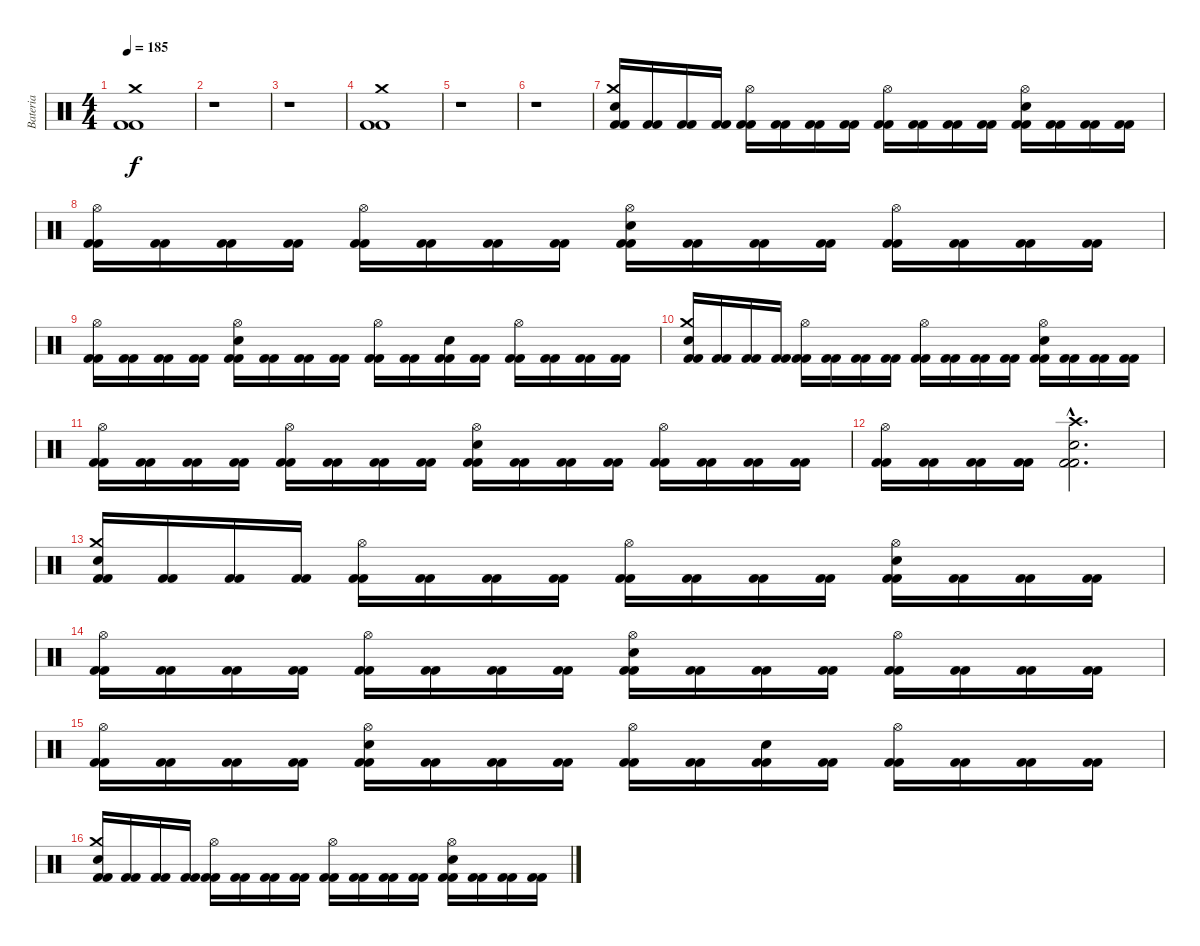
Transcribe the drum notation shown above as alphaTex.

\track ("Bateria" "Bateria") {instrument percussion}
\staff {score}
\articulation defaults
\ts (4 4)
\tempo 185
\clef neutral
\ks c
("Kick (hit) 2" "Kick (hit) 2" "Crash medium (hit)").1{dy f} |
r.1 |
r.1 |
("Kick (hit) 2" "Kick (hit) 2" "Crash medium (hit)").1 |
r.1 |
r.1 |
("Kick (hit) 2" "Kick (hit) 2" "Electric Snare (hit)" "Crash medium (hit)").16 ("Kick (hit) 2" "Kick (hit) 2").16 ("Kick (hit) 2" "Kick (hit) 2").16 ("Kick (hit) 2" "Kick (hit) 2").16 ("Kick (hit) 2" "Kick (hit) 2" "Hi-Hat (open)").16 ("Kick (hit) 2" "Kick (hit) 2").16 ("Kick (hit) 2" "Kick (hit) 2").16 ("Kick (hit) 2" "Kick (hit) 2").16 ("Kick (hit) 2" "Kick (hit) 2" "Hi-Hat (open)").16 ("Kick (hit) 2" "Kick (hit) 2").16 ("Kick (hit) 2" "Kick (hit) 2").16 ("Kick (hit) 2" "Kick (hit) 2").16 ("Kick (hit) 2" "Kick (hit) 2" "Electric Snare (hit)" "Hi-Hat (open)").16 ("Kick (hit) 2" "Kick (hit) 2").16 ("Kick (hit) 2" "Kick (hit) 2").16 ("Kick (hit) 2" "Kick (hit) 2").16 |
("Kick (hit) 2" "Kick (hit) 2" "Hi-Hat (open)").16 ("Kick (hit) 2" "Kick (hit) 2").16 ("Kick (hit) 2" "Kick (hit) 2").16 ("Kick (hit) 2" "Kick (hit) 2").16 ("Kick (hit) 2" "Kick (hit) 2" "Hi-Hat (open)").16 ("Kick (hit) 2" "Kick (hit) 2").16 ("Kick (hit) 2" "Kick (hit) 2").16 ("Kick (hit) 2" "Kick (hit) 2").16 ("Kick (hit) 2" "Kick (hit) 2" "Electric Snare (hit)" "Hi-Hat (open)").16 ("Kick (hit) 2" "Kick (hit) 2").16 ("Kick (hit) 2" "Kick (hit) 2").16 ("Kick (hit) 2" "Kick (hit) 2").16 ("Kick (hit) 2" "Kick (hit) 2" "Hi-Hat (open)").16 ("Kick (hit) 2" "Kick (hit) 2").16 ("Kick (hit) 2" "Kick (hit) 2").16 ("Kick (hit) 2" "Kick (hit) 2").16 |
("Kick (hit) 2" "Kick (hit) 2" "Hi-Hat (open)").16 ("Kick (hit) 2" "Kick (hit) 2").16 ("Kick (hit) 2" "Kick (hit) 2").16 ("Kick (hit) 2" "Kick (hit) 2").16 ("Kick (hit) 2" "Kick (hit) 2" "Electric Snare (hit)" "Hi-Hat (open)").16 ("Kick (hit) 2" "Kick (hit) 2").16 ("Kick (hit) 2" "Kick (hit) 2").16 ("Kick (hit) 2" "Kick (hit) 2").16 ("Kick (hit) 2" "Kick (hit) 2" "Hi-Hat (open)").16 ("Kick (hit) 2" "Kick (hit) 2").16 ("Kick (hit) 2" "Kick (hit) 2" "Electric Snare (hit)").16 ("Kick (hit) 2" "Kick (hit) 2").16 ("Kick (hit) 2" "Kick (hit) 2" "Hi-Hat (open)").16 ("Kick (hit) 2" "Kick (hit) 2").16 ("Kick (hit) 2" "Kick (hit) 2").16 ("Kick (hit) 2" "Kick (hit) 2").16 |
("Kick (hit) 2" "Kick (hit) 2" "Electric Snare (hit)" "Crash medium (hit)").16 ("Kick (hit) 2" "Kick (hit) 2").16 ("Kick (hit) 2" "Kick (hit) 2").16 ("Kick (hit) 2" "Kick (hit) 2").16 ("Kick (hit) 2" "Kick (hit) 2" "Hi-Hat (open)").16 ("Kick (hit) 2" "Kick (hit) 2").16 ("Kick (hit) 2" "Kick (hit) 2").16 ("Kick (hit) 2" "Kick (hit) 2").16 ("Kick (hit) 2" "Kick (hit) 2" "Hi-Hat (open)").16 ("Kick (hit) 2" "Kick (hit) 2").16 ("Kick (hit) 2" "Kick (hit) 2").16 ("Kick (hit) 2" "Kick (hit) 2").16 ("Kick (hit) 2" "Kick (hit) 2" "Electric Snare (hit)" "Hi-Hat (open)").16 ("Kick (hit) 2" "Kick (hit) 2").16 ("Kick (hit) 2" "Kick (hit) 2").16 ("Kick (hit) 2" "Kick (hit) 2").16 |
("Kick (hit) 2" "Kick (hit) 2" "Hi-Hat (open)").16 ("Kick (hit) 2" "Kick (hit) 2").16 ("Kick (hit) 2" "Kick (hit) 2").16 ("Kick (hit) 2" "Kick (hit) 2").16 ("Kick (hit) 2" "Kick (hit) 2" "Hi-Hat (open)").16 ("Kick (hit) 2" "Kick (hit) 2").16 ("Kick (hit) 2" "Kick (hit) 2").16 ("Kick (hit) 2" "Kick (hit) 2").16 ("Kick (hit) 2" "Kick (hit) 2" "Electric Snare (hit)" "Hi-Hat (open)").16 ("Kick (hit) 2" "Kick (hit) 2").16 ("Kick (hit) 2" "Kick (hit) 2").16 ("Kick (hit) 2" "Kick (hit) 2").16 ("Kick (hit) 2" "Kick (hit) 2" "Hi-Hat (open)").16 ("Kick (hit) 2" "Kick (hit) 2").16 ("Kick (hit) 2" "Kick (hit) 2").16 ("Kick (hit) 2" "Kick (hit) 2").16 |
("Kick (hit) 2" "Kick (hit) 2" "Hi-Hat (open)").16 ("Kick (hit) 2" "Kick (hit) 2").16 ("Kick (hit) 2" "Kick (hit) 2").16 ("Kick (hit) 2" "Kick (hit) 2").16 ("Kick (hit) 2"{hac} "Kick (hit) 2"{hac} "Electric Snare (hit)"{hac} "Crash high (hit)"{hac}).2{d} |
("Kick (hit) 2" "Kick (hit) 2" "Electric Snare (hit)" "Crash medium (hit)").16 ("Kick (hit) 2" "Kick (hit) 2").16 ("Kick (hit) 2" "Kick (hit) 2").16 ("Kick (hit) 2" "Kick (hit) 2").16 ("Kick (hit) 2" "Kick (hit) 2" "Hi-Hat (open)").16 ("Kick (hit) 2" "Kick (hit) 2").16 ("Kick (hit) 2" "Kick (hit) 2").16 ("Kick (hit) 2" "Kick (hit) 2").16 ("Kick (hit) 2" "Kick (hit) 2" "Hi-Hat (open)").16 ("Kick (hit) 2" "Kick (hit) 2").16 ("Kick (hit) 2" "Kick (hit) 2").16 ("Kick (hit) 2" "Kick (hit) 2").16 ("Kick (hit) 2" "Kick (hit) 2" "Electric Snare (hit)" "Hi-Hat (open)").16 ("Kick (hit) 2" "Kick (hit) 2").16 ("Kick (hit) 2" "Kick (hit) 2").16 ("Kick (hit) 2" "Kick (hit) 2").16 |
("Kick (hit) 2" "Kick (hit) 2" "Hi-Hat (open)").16 ("Kick (hit) 2" "Kick (hit) 2").16 ("Kick (hit) 2" "Kick (hit) 2").16 ("Kick (hit) 2" "Kick (hit) 2").16 ("Kick (hit) 2" "Kick (hit) 2" "Hi-Hat (open)").16 ("Kick (hit) 2" "Kick (hit) 2").16 ("Kick (hit) 2" "Kick (hit) 2").16 ("Kick (hit) 2" "Kick (hit) 2").16 ("Kick (hit) 2" "Kick (hit) 2" "Electric Snare (hit)" "Hi-Hat (open)").16 ("Kick (hit) 2" "Kick (hit) 2").16 ("Kick (hit) 2" "Kick (hit) 2").16 ("Kick (hit) 2" "Kick (hit) 2").16 ("Kick (hit) 2" "Kick (hit) 2" "Hi-Hat (open)").16 ("Kick (hit) 2" "Kick (hit) 2").16 ("Kick (hit) 2" "Kick (hit) 2").16 ("Kick (hit) 2" "Kick (hit) 2").16 |
("Kick (hit) 2" "Kick (hit) 2" "Hi-Hat (open)").16 ("Kick (hit) 2" "Kick (hit) 2").16 ("Kick (hit) 2" "Kick (hit) 2").16 ("Kick (hit) 2" "Kick (hit) 2").16 ("Kick (hit) 2" "Kick (hit) 2" "Electric Snare (hit)" "Hi-Hat (open)").16 ("Kick (hit) 2" "Kick (hit) 2").16 ("Kick (hit) 2" "Kick (hit) 2").16 ("Kick (hit) 2" "Kick (hit) 2").16 ("Kick (hit) 2" "Kick (hit) 2" "Hi-Hat (open)").16 ("Kick (hit) 2" "Kick (hit) 2").16 ("Kick (hit) 2" "Kick (hit) 2" "Electric Snare (hit)").16 ("Kick (hit) 2" "Kick (hit) 2").16 ("Kick (hit) 2" "Kick (hit) 2" "Hi-Hat (open)").16 ("Kick (hit) 2" "Kick (hit) 2").16 ("Kick (hit) 2" "Kick (hit) 2").16 ("Kick (hit) 2" "Kick (hit) 2").16 |
("Kick (hit) 2" "Kick (hit) 2" "Electric Snare (hit)" "Crash medium (hit)").16 ("Kick (hit) 2" "Kick (hit) 2").16 ("Kick (hit) 2" "Kick (hit) 2").16 ("Kick (hit) 2" "Kick (hit) 2").16 ("Kick (hit) 2" "Kick (hit) 2" "Hi-Hat (open)").16 ("Kick (hit) 2" "Kick (hit) 2").16 ("Kick (hit) 2" "Kick (hit) 2").16 ("Kick (hit) 2" "Kick (hit) 2").16 ("Kick (hit) 2" "Kick (hit) 2" "Hi-Hat (open)").16 ("Kick (hit) 2" "Kick (hit) 2").16 ("Kick (hit) 2" "Kick (hit) 2").16 ("Kick (hit) 2" "Kick (hit) 2").16 ("Kick (hit) 2" "Kick (hit) 2" "Electric Snare (hit)" "Hi-Hat (open)").16 ("Kick (hit) 2" "Kick (hit) 2").16 ("Kick (hit) 2" "Kick (hit) 2").16 ("Kick (hit) 2" "Kick (hit) 2").16
